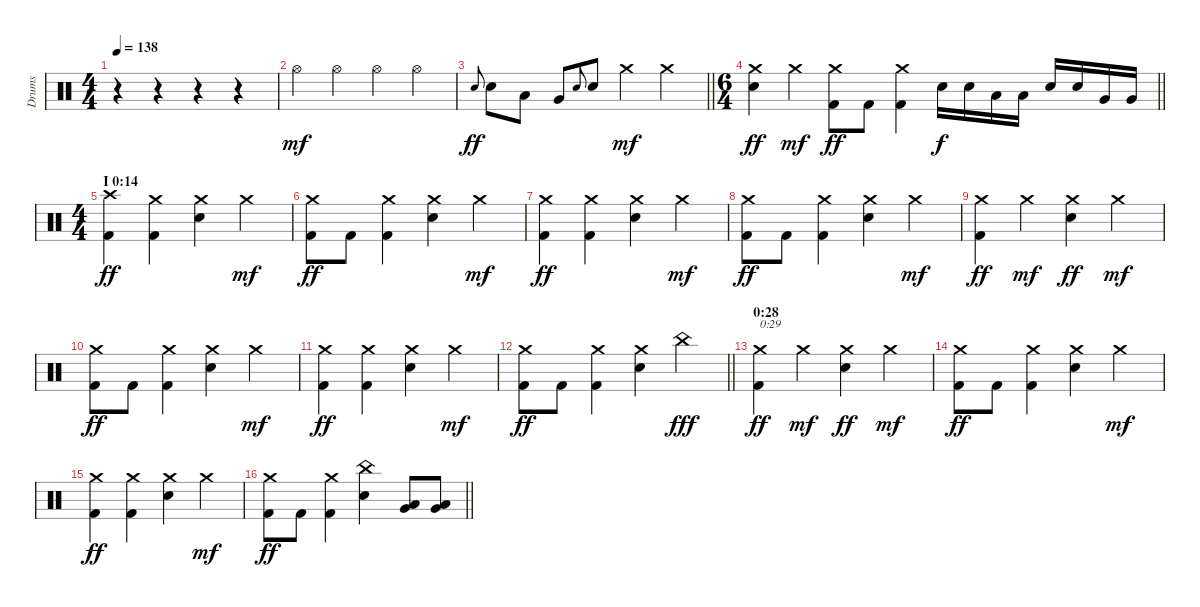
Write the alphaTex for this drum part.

\track ("Drums" "Drums") {instrument percussion}
\staff {score}
\articulation defaults
\ts (4 4)
\tempo 138
\clef neutral
\ks c
r.4{dy mf} r.4 r.4 r.4 |
"Hi-Hat (open)".4 "Hi-Hat (open)".4 "Hi-Hat (open)".4 "Hi-Hat (open)".4 |
\barLineRight lightlight "Electric Snare (hit)".8{gr onbeat dy ff} "Electric Snare (hit)".8 "Low Tom (hit)".8 "Very Low Tom (hit)".8 "Electric Snare (hit)".8{gr onbeat} "Electric Snare (hit)".8 "Crash medium (hit)".4{dy mf} "Crash medium (hit)".4
|
\ts (6 4)
\barLineRight lightlight
("Crash medium (hit)" "Electric Snare (hit)").4{dy ff} "Crash medium (hit)".4{dy mf} ("Crash medium (hit)" "Kick (hit) 2").8{dy ff} "Kick (hit) 2".8 ("Crash medium (hit)" "Kick (hit) 2").4 "Electric Snare (hit)".16{dy f} "Electric Snare (hit)".16 "Low Tom (hit)".16 "Low Tom (hit)".16 "Electric Snare (hit)".16 "Electric Snare (hit)".16 "Very Low Tom (hit)".16 "Very Low Tom (hit)".16 |
\ts (4 4)
\section ("" "I 0:14")
("Crash high (hit)" "Kick (hit) 2").4{dy ff} ("Crash medium (hit)" "Kick (hit) 2").4 ("Crash medium (hit)" "Electric Snare (hit)").4 "Crash medium (hit)".4{dy mf} |
("Crash medium (hit)" "Kick (hit) 2").8{dy ff} "Kick (hit) 2".8 ("Crash medium (hit)" "Kick (hit) 2").4 ("Crash medium (hit)" "Electric Snare (hit)").4 "Crash medium (hit)".4{dy mf} |
("Crash medium (hit)" "Kick (hit) 2").4{dy ff} ("Crash medium (hit)" "Kick (hit) 2").4 ("Crash medium (hit)" "Electric Snare (hit)").4 "Crash medium (hit)".4{dy mf} |
("Crash medium (hit)" "Kick (hit) 2").8{dy ff} "Kick (hit) 2".8 ("Crash medium (hit)" "Kick (hit) 2").4 ("Crash medium (hit)" "Electric Snare (hit)").4 "Crash medium (hit)".4{dy mf} |
("Crash medium (hit)" "Kick (hit) 2").4{dy ff} "Crash medium (hit)".4{dy mf} ("Crash medium (hit)" "Electric Snare (hit)").4{dy ff} "Crash medium (hit)".4{dy mf} |
("Crash medium (hit)" "Kick (hit) 2").8{dy ff} "Kick (hit) 2".8 ("Crash medium (hit)" "Kick (hit) 2").4 ("Crash medium (hit)" "Electric Snare (hit)").4 "Crash medium (hit)".4{dy mf} |
("Crash medium (hit)" "Kick (hit) 2").4{dy ff} ("Crash medium (hit)" "Kick (hit) 2").4 ("Crash medium (hit)" "Electric Snare (hit)").4 "Crash medium (hit)".4{dy mf} |
\barLineRight lightlight
("Crash medium (hit)" "Kick (hit) 2").8{dy ff} "Kick (hit) 2".8 ("Crash medium (hit)" "Kick (hit) 2").4 ("Crash medium (hit)" "Electric Snare (hit)").4 "China (hit)".4{dy fff} |
\section ("" "0:28")
("Crash medium (hit)" "Kick (hit) 2").4{txt "0:29" dy ff} "Crash medium (hit)".4{dy mf} ("Crash medium (hit)" "Electric Snare (hit)").4{dy ff} "Crash medium (hit)".4{dy mf} |
("Crash medium (hit)" "Kick (hit) 2").8{dy ff} "Kick (hit) 2".8 ("Crash medium (hit)" "Kick (hit) 2").4 ("Crash medium (hit)" "Electric Snare (hit)").4 "Crash medium (hit)".4{dy mf} |
("Crash medium (hit)" "Kick (hit) 2").4{dy ff} ("Crash medium (hit)" "Kick (hit) 2").4 ("Crash medium (hit)" "Electric Snare (hit)").4 "Crash medium (hit)".4{dy mf} |
\barLineRight lightlight
("Crash medium (hit)" "Kick (hit) 2").8{dy ff} "Kick (hit) 2".8 ("Crash medium (hit)" "Kick (hit) 2").4 ("China (hit)" "Electric Snare (hit)").4 ("Very Low Tom (hit)" "Low Floor Tom (hit)").8 ("Very Low Tom (hit)" "Low Floor Tom (hit)").8
